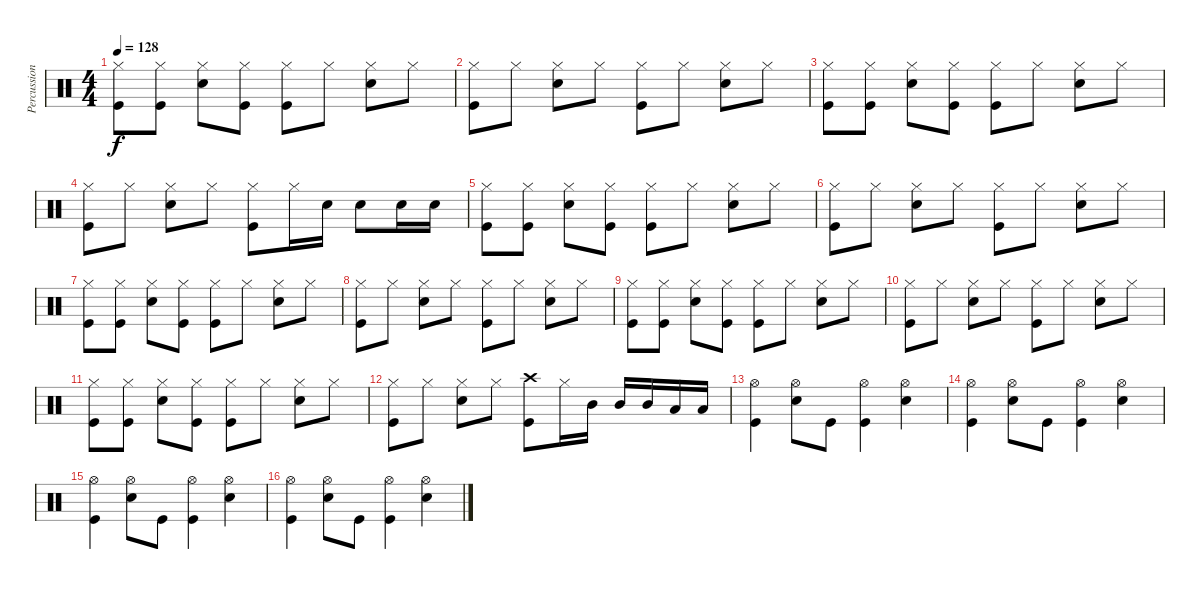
\track ("Percussion" "Percussion") {instrument percussion}
\staff {score}
\articulation defaults
\ts (4 4)
\tempo 128
\clef neutral
\ks c
("Hi-Hat (closed)" "Kick (hit)").8{dy f} ("Hi-Hat (closed)" "Kick (hit)").8 ("Hi-Hat (closed)" "Snare (hit) 2").8 ("Hi-Hat (closed)" "Kick (hit)").8 ("Hi-Hat (closed)" "Kick (hit)").8 "Hi-Hat (closed)".8 ("Hi-Hat (closed)" "Snare (hit) 2").8 "Hi-Hat (closed)".8 |
("Hi-Hat (closed)" "Kick (hit)").8 "Hi-Hat (closed)".8 ("Hi-Hat (closed)" "Snare (hit) 2").8 "Hi-Hat (closed)".8 ("Hi-Hat (closed)" "Kick (hit)").8 "Hi-Hat (closed)".8 ("Hi-Hat (closed)" "Snare (hit) 2").8 "Hi-Hat (closed)".8 |
("Hi-Hat (closed)" "Kick (hit)").8 ("Hi-Hat (closed)" "Kick (hit)").8 ("Hi-Hat (closed)" "Snare (hit) 2").8 ("Hi-Hat (closed)" "Kick (hit)").8 ("Hi-Hat (closed)" "Kick (hit)").8 "Hi-Hat (closed)".8 ("Hi-Hat (closed)" "Snare (hit) 2").8 "Hi-Hat (closed)".8 |
("Hi-Hat (closed)" "Kick (hit)").8 "Hi-Hat (closed)".8 ("Hi-Hat (closed)" "Snare (hit) 2").8 "Hi-Hat (closed)".8 ("Hi-Hat (closed)" "Kick (hit)").8 "Hi-Hat (closed)".16 "Snare (hit) 2".16 "Snare (hit) 2".8 "Snare (hit) 2".16 "Snare (hit) 2".16 |
("Hi-Hat (closed)" "Kick (hit)").8 ("Hi-Hat (closed)" "Kick (hit)").8 ("Hi-Hat (closed)" "Snare (hit) 2").8 ("Hi-Hat (closed)" "Kick (hit)").8 ("Hi-Hat (closed)" "Kick (hit)").8 "Hi-Hat (closed)".8 ("Hi-Hat (closed)" "Snare (hit) 2").8 "Hi-Hat (closed)".8 |
("Hi-Hat (closed)" "Kick (hit)").8 "Hi-Hat (closed)".8 ("Hi-Hat (closed)" "Snare (hit) 2").8 "Hi-Hat (closed)".8 ("Hi-Hat (closed)" "Kick (hit)").8 "Hi-Hat (closed)".8 ("Hi-Hat (closed)" "Snare (hit) 2").8 "Hi-Hat (closed)".8 |
("Hi-Hat (closed)" "Kick (hit)").8 ("Hi-Hat (closed)" "Kick (hit)").8 ("Hi-Hat (closed)" "Snare (hit) 2").8 ("Hi-Hat (closed)" "Kick (hit)").8 ("Hi-Hat (closed)" "Kick (hit)").8 "Hi-Hat (closed)".8 ("Hi-Hat (closed)" "Snare (hit) 2").8 "Hi-Hat (closed)".8 |
("Hi-Hat (closed)" "Kick (hit)").8 "Hi-Hat (closed)".8 ("Hi-Hat (closed)" "Snare (hit) 2").8 "Hi-Hat (closed)".8 ("Hi-Hat (closed)" "Kick (hit)").8 "Hi-Hat (closed)".8 ("Hi-Hat (closed)" "Snare (hit) 2").8 "Hi-Hat (closed)".8 |
("Hi-Hat (closed)" "Kick (hit)").8 ("Hi-Hat (closed)" "Kick (hit)").8 ("Hi-Hat (closed)" "Snare (hit) 2").8 ("Hi-Hat (closed)" "Kick (hit)").8 ("Hi-Hat (closed)" "Kick (hit)").8 "Hi-Hat (closed)".8 ("Hi-Hat (closed)" "Snare (hit) 2").8 "Hi-Hat (closed)".8 |
("Hi-Hat (closed)" "Kick (hit)").8 "Hi-Hat (closed)".8 ("Hi-Hat (closed)" "Snare (hit) 2").8 "Hi-Hat (closed)".8 ("Hi-Hat (closed)" "Kick (hit)").8 "Hi-Hat (closed)".8 ("Hi-Hat (closed)" "Snare (hit) 2").8 "Hi-Hat (closed)".8 |
("Hi-Hat (closed)" "Kick (hit)").8 ("Hi-Hat (closed)" "Kick (hit)").8 ("Hi-Hat (closed)" "Snare (hit) 2").8 ("Hi-Hat (closed)" "Kick (hit)").8 ("Hi-Hat (closed)" "Kick (hit)").8 "Hi-Hat (closed)".8 ("Hi-Hat (closed)" "Snare (hit) 2").8 "Hi-Hat (closed)".8 |
("Hi-Hat (closed)" "Kick (hit)").8 "Hi-Hat (closed)".8 ("Hi-Hat (closed)" "Snare (hit) 2").8 "Hi-Hat (closed)".8 ("Crash high (hit)" "Kick (hit)").8 "Hi-Hat (closed)".16 "Mid Tom (hit)".16 "Mid Tom (hit)".16 "Mid Tom (hit)".16 "Low Tom (hit)".16 "Low Tom (hit)".16 |
("Hi-Hat (open)" "Kick (hit)").4 ("Hi-Hat (open)" "Snare (hit) 2").8 "Kick (hit)".8 ("Hi-Hat (open)" "Kick (hit)").4 ("Hi-Hat (open)" "Snare (hit) 2").4 |
("Hi-Hat (open)" "Kick (hit)").4 ("Hi-Hat (open)" "Snare (hit) 2").8 "Kick (hit)".8 ("Hi-Hat (open)" "Kick (hit)").4 ("Hi-Hat (open)" "Snare (hit) 2").4 |
("Hi-Hat (open)" "Kick (hit)").4 ("Hi-Hat (open)" "Snare (hit) 2").8 "Kick (hit)".8 ("Hi-Hat (open)" "Kick (hit)").4 ("Hi-Hat (open)" "Snare (hit) 2").4 |
("Hi-Hat (open)" "Kick (hit)").4 ("Hi-Hat (open)" "Snare (hit) 2").8 "Kick (hit)".8 ("Hi-Hat (open)" "Kick (hit)").4 ("Hi-Hat (open)" "Snare (hit) 2").4
